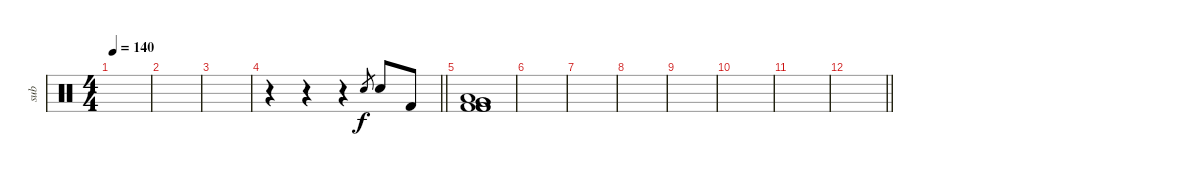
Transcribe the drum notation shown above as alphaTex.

\track ("sub" "sub") {instrument percussion}
\staff {score}
\articulation defaults
\ts (4 4)
\tempo 140
\clef neutral
\ks c
|
|
|
\barLineRight lightlight
r.4 r.4 r.4 "Electric Snare (hit)".8{gr} "Electric Snare (hit)".8 "Kick (hit) 2".8 |
\section ("" "")
("Low Floor Tom (hit)" "Very Low Tom (hit)" "Very Low Tom (hit)" "Kick (hit) 2" "Kick (hit) 2" "Kick (hit) 2").1 |
|
|
|
|
|
|
\barLineRight lightlight
